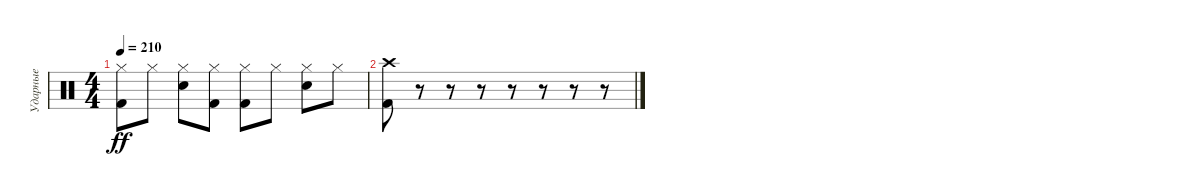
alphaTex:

\track ("Ударные" "Ударные") {instrument percussion}
\staff {score}
\articulation defaults
\ts (4 4)
\tempo 210
\clef neutral
\ks c
("Hi-Hat (closed)" "Kick (hit) 2").8{dy ff} "Hi-Hat (closed)".8 ("Hi-Hat (closed)" "Snare (hit) 2").8 ("Hi-Hat (closed)" "Kick (hit) 2").8 ("Hi-Hat (closed)" "Kick (hit) 2").8 "Hi-Hat (closed)".8 ("Hi-Hat (closed)" "Snare (hit) 2").8 "Hi-Hat (closed)".8 |
("Crash high (hit)" "Kick (hit) 2").8 r.8 r.8 r.8 r.8 r.8 r.8 r.8
